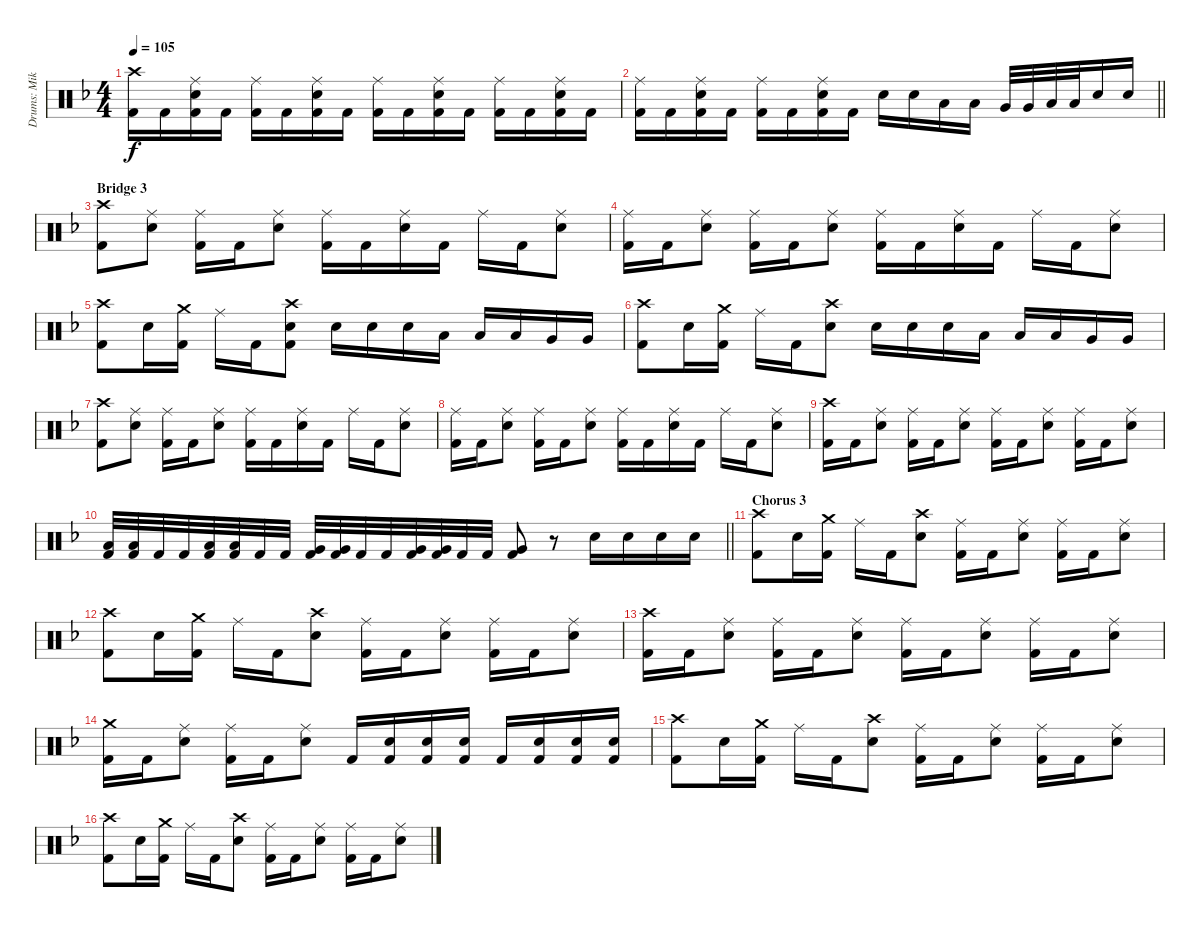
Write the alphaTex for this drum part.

\track ("Drums: Mikko Korsbäck" "Drums: Mik") {instrument percussion}
\staff {score}
\articulation defaults
\ts (4 4)
\tempo 105
\clef neutral
\ks dminor
("Crash high (hit)" "Kick (hit) 2").16{dy f} "Kick (hit) 2".16 ("Ride (middle)" "Electric Snare (hit)" "Kick (hit) 2").16 "Kick (hit) 2".16 ("Ride (middle)" "Kick (hit) 2").16 "Kick (hit) 2".16 ("Ride (middle)" "Electric Snare (hit)" "Kick (hit) 2").16 "Kick (hit) 2".16 ("Ride (middle)" "Kick (hit) 2").16 "Kick (hit) 2".16 ("Ride (middle)" "Electric Snare (hit)" "Kick (hit) 2").16 "Kick (hit) 2".16 ("Ride (middle)" "Kick (hit) 2").16 "Kick (hit) 2".16 ("Ride (middle)" "Electric Snare (hit)" "Kick (hit) 2").16 "Kick (hit) 2".16 |
\barLineRight lightlight
("Ride (middle)" "Kick (hit) 2").16 "Kick (hit) 2".16 ("Ride (middle)" "Electric Snare (hit)" "Kick (hit) 2").16 "Kick (hit) 2".16 ("Ride (middle)" "Kick (hit) 2").16 "Kick (hit) 2".16 ("Ride (middle)" "Electric Snare (hit)" "Kick (hit) 2").16 "Kick (hit) 2".16 "Electric Snare (hit)".16 "Electric Snare (hit)".16 "Low Tom (hit)".16 "Low Tom (hit)".16 "Very Low Tom (hit)".32 "Very Low Tom (hit)".32 "Low Floor Tom (hit)".32 "Low Floor Tom (hit)".32 "Electric Snare (hit)".16 "Electric Snare (hit)".16 |
\section ("" "Bridge 3")
("Crash high (hit)" "Kick (hit) 2").8 ("Ride (middle)" "Electric Snare (hit)").8 ("Ride (middle)" "Kick (hit) 2").16 "Kick (hit) 2".16 ("Ride (middle)" "Electric Snare (hit)").8 ("Ride (middle)" "Kick (hit) 2").16 "Kick (hit) 2".16 ("Ride (middle)" "Electric Snare (hit)").16 "Kick (hit) 2".16 "Ride (middle)".16 "Kick (hit) 2".16 ("Ride (middle)" "Electric Snare (hit)").8 |
("Ride (middle)" "Kick (hit) 2").16 "Kick (hit) 2".16 ("Ride (middle)" "Electric Snare (hit)").8 ("Ride (middle)" "Kick (hit) 2").16 "Kick (hit) 2".16 ("Ride (middle)" "Electric Snare (hit)").8 ("Ride (middle)" "Kick (hit) 2").16 "Kick (hit) 2".16 ("Ride (middle)" "Electric Snare (hit)").16 "Kick (hit) 2".16 "Ride (middle)".16 "Kick (hit) 2".16 ("Ride (middle)" "Electric Snare (hit)").8 |
("Crash high (hit)" "Kick (hit) 2").8 "Electric Snare (hit)".16 ("Crash medium (hit)" "Kick (hit) 2").16 "Ride (middle)".16 "Kick (hit) 2".16 ("Crash high (hit)" "Electric Snare (hit)" "Kick (hit) 2").8 "Electric Snare (hit)".16 "Electric Snare (hit)".16 "Electric Snare (hit)".16 "Low Tom (hit)".16 "Low Tom (hit)".16 "Low Tom (hit)".16 "Very Low Tom (hit)".16 "Very Low Tom (hit)".16 |
("Crash high (hit)" "Kick (hit) 2").8 "Electric Snare (hit)".16 ("Crash medium (hit)" "Kick (hit) 2").16 "Ride (middle)".16 "Kick (hit) 2".16 ("Crash high (hit)" "Electric Snare (hit)").8 "Electric Snare (hit)".16 "Electric Snare (hit)".16 "Electric Snare (hit)".16 "Low Tom (hit)".16 "Low Tom (hit)".16 "Low Tom (hit)".16 "Very Low Tom (hit)".16 "Very Low Tom (hit)".16 |
("Crash high (hit)" "Kick (hit) 2").8 ("Ride (middle)" "Electric Snare (hit)").8 ("Ride (middle)" "Kick (hit) 2").16 "Kick (hit) 2".16 ("Ride (middle)" "Electric Snare (hit)").8 ("Ride (middle)" "Kick (hit) 2").16 "Kick (hit) 2".16 ("Ride (middle)" "Electric Snare (hit)").16 "Kick (hit) 2".16 "Ride (middle)".16 "Kick (hit) 2".16 ("Ride (middle)" "Electric Snare (hit)").8 |
("Ride (middle)" "Kick (hit) 2").16 "Kick (hit) 2".16 ("Ride (middle)" "Electric Snare (hit)").8 ("Ride (middle)" "Kick (hit) 2").16 "Kick (hit) 2".16 ("Ride (middle)" "Electric Snare (hit)").8 ("Ride (middle)" "Kick (hit) 2").16 "Kick (hit) 2".16 ("Ride (middle)" "Electric Snare (hit)").16 "Kick (hit) 2".16 "Ride (middle)".16 "Kick (hit) 2".16 ("Ride (middle)" "Electric Snare (hit)").8 |
("Crash high (hit)" "Kick (hit) 2").16 "Kick (hit) 2".16 ("Ride (middle)" "Electric Snare (hit)").8 ("Ride (middle)" "Kick (hit) 2").16 "Kick (hit) 2".16 ("Ride (middle)" "Electric Snare (hit)").8 ("Ride (middle)" "Kick (hit) 2").16 "Kick (hit) 2".16 ("Ride (middle)" "Electric Snare (hit)").8 ("Ride (middle)" "Kick (hit) 2").16 "Kick (hit) 2".16 ("Ride (middle)" "Electric Snare (hit)").8 |
\barLineRight lightlight
("Low Tom (hit)" "Kick (hit) 2").32 ("Low Tom (hit)" "Kick (hit) 2").32 "Kick (hit) 2".32 "Kick (hit) 2".32 ("Low Tom (hit)" "Kick (hit) 2").32 ("Low Tom (hit)" "Kick (hit) 2").32 "Kick (hit) 2".32 "Kick (hit) 2".32 ("Very Low Tom (hit)" "Kick (hit) 2").32 ("Very Low Tom (hit)" "Kick (hit) 2").32 "Kick (hit) 2".32 "Kick (hit) 2".32 ("Very Low Tom (hit)" "Kick (hit) 2").32 ("Very Low Tom (hit)" "Kick (hit) 2").32 "Kick (hit) 2".32 "Kick (hit) 2".32 ("Very Low Tom (hit)" "Kick (hit) 2").8 r.8 "Electric Snare (hit)".16 "Electric Snare (hit)".16 "Electric Snare (hit)".16 "Electric Snare (hit)".16 |
\section ("" "Chorus 3")
("Crash high (hit)" "Kick (hit) 2").8 "Electric Snare (hit)".16 ("Crash medium (hit)" "Kick (hit) 2").16 "Ride (middle)".16 "Kick (hit) 2".16 ("Crash high (hit)" "Electric Snare (hit)").8 ("Ride (middle)" "Kick (hit) 2").16 "Kick (hit) 2".16 ("Ride (middle)" "Electric Snare (hit)").8 ("Ride (middle)" "Kick (hit) 2").16 "Kick (hit) 2".16 ("Ride (middle)" "Electric Snare (hit)").8 |
("Crash high (hit)" "Kick (hit) 2").8 "Electric Snare (hit)".16 ("Crash medium (hit)" "Kick (hit) 2").16 "Ride (middle)".16 "Kick (hit) 2".16 ("Crash high (hit)" "Electric Snare (hit)").8 ("Ride (middle)" "Kick (hit) 2").16 "Kick (hit) 2".16 ("Ride (middle)" "Electric Snare (hit)").8 ("Ride (middle)" "Kick (hit) 2").16 "Kick (hit) 2".16 ("Ride (middle)" "Electric Snare (hit)").8 |
("Crash high (hit)" "Kick (hit) 2").16 "Kick (hit) 2".16 ("Ride (middle)" "Electric Snare (hit)").8 ("Ride (middle)" "Kick (hit) 2").16 "Kick (hit) 2".16 ("Ride (middle)" "Electric Snare (hit)").8 ("Ride (middle)" "Kick (hit) 2").16 "Kick (hit) 2".16 ("Ride (middle)" "Electric Snare (hit)").8 ("Ride (middle)" "Kick (hit) 2").16 "Kick (hit) 2".16 ("Ride (middle)" "Electric Snare (hit)").8 |
("Crash medium (hit)" "Kick (hit) 2").16 "Kick (hit) 2".16 ("Ride (middle)" "Electric Snare (hit)").8 ("Ride (middle)" "Kick (hit) 2").16 "Kick (hit) 2".16 ("Ride (middle)" "Electric Snare (hit)").8 "Kick (hit) 2".16 ("Electric Snare (hit)" "Kick (hit) 2").16 ("Electric Snare (hit)" "Kick (hit) 2").16 ("Electric Snare (hit)" "Kick (hit) 2").16 "Kick (hit) 2".16 ("Electric Snare (hit)" "Kick (hit) 2").16 ("Electric Snare (hit)" "Kick (hit) 2").16 ("Electric Snare (hit)" "Kick (hit) 2").16 |
("Crash high (hit)" "Kick (hit) 2").8 "Electric Snare (hit)".16 ("Crash medium (hit)" "Kick (hit) 2").16 "Ride (middle)".16 "Kick (hit) 2".16 ("Crash high (hit)" "Electric Snare (hit)").8 ("Ride (middle)" "Kick (hit) 2").16 "Kick (hit) 2".16 ("Ride (middle)" "Electric Snare (hit)").8 ("Ride (middle)" "Kick (hit) 2").16 "Kick (hit) 2".16 ("Ride (middle)" "Electric Snare (hit)").8 |
("Crash high (hit)" "Kick (hit) 2").8 "Electric Snare (hit)".16 ("Crash medium (hit)" "Kick (hit) 2").16 "Ride (middle)".16 "Kick (hit) 2".16 ("Crash high (hit)" "Electric Snare (hit)").8 ("Ride (middle)" "Kick (hit) 2").16 "Kick (hit) 2".16 ("Ride (middle)" "Electric Snare (hit)").8 ("Ride (middle)" "Kick (hit) 2").16 "Kick (hit) 2".16 ("Ride (middle)" "Electric Snare (hit)").8
